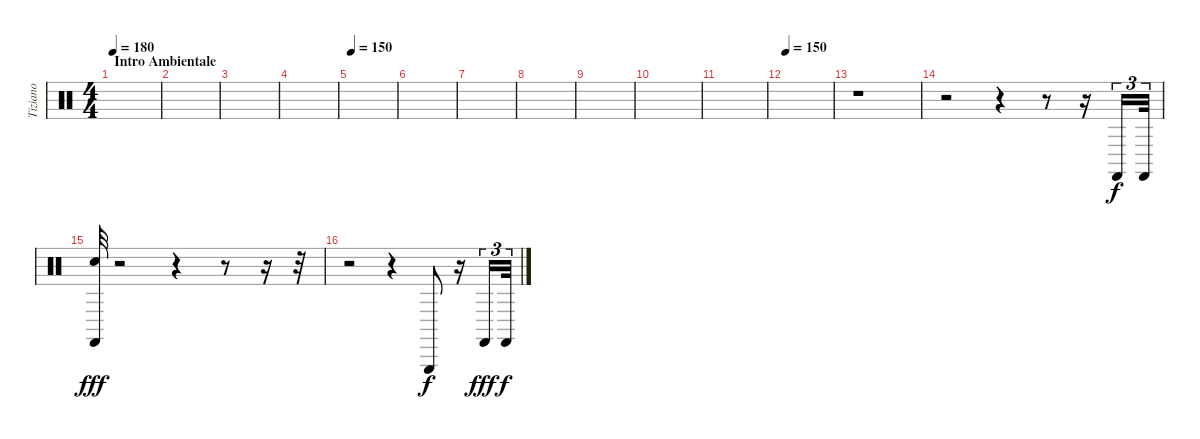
\track ("Tiziano" "Tiziano") {instrument percussion}
\staff {score}
\articulation defaults
\ts (4 4)
\section ("" "Intro Ambientale")
\tempo 180
\tempo 150
\tempo 180
\clef neutral
\ks c
|
|
|
|
\tempo 150
|
|
|
|
|
|
|
\tempo 150
|
r.1 |
r.2 r.4 r.8 r.16 "Castanets (hit)".16{tu (3 2)} "Castanets (hit)".32{tu (3 2) dy f} |
("Hand Clap (hit)" "Castanets (hit)").32{dy fff} r.2 r.4 r.8 r.16 r.32 |
r.2 r.4 "Triangle (hit)".8{dy f} r.16 "Castanets (hit)".16{tu (3 2) dy fff} "Castanets (hit)".32{tu (3 2) dy f}
